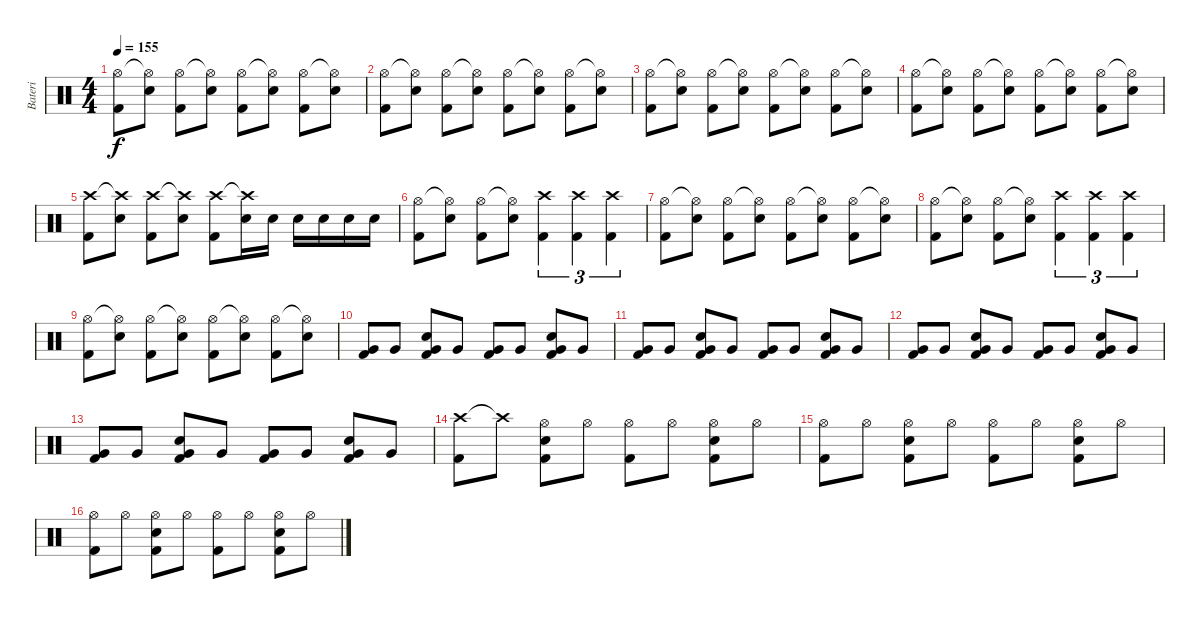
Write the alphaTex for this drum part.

\track ("Bateri" "Bateri") {instrument percussion}
\staff {score}
\articulation defaults
\ts (4 4)
\tempo 155
\clef neutral
\ks c
("Hi-Hat (open)" "Kick (hit) 2").8{dy f} ("Hi-Hat (open)"{t} "Snare (hit) 2").8 ("Hi-Hat (open)" "Kick (hit) 2").8 ("Hi-Hat (open)"{t} "Snare (hit) 2").8 ("Hi-Hat (open)" "Kick (hit) 2").8 ("Hi-Hat (open)"{t} "Snare (hit) 2").8 ("Hi-Hat (open)" "Kick (hit) 2").8 ("Hi-Hat (open)"{t} "Snare (hit) 2").8 |
("Hi-Hat (open)" "Kick (hit) 2").8 ("Hi-Hat (open)"{t} "Snare (hit) 2").8 ("Hi-Hat (open)" "Kick (hit) 2").8 ("Hi-Hat (open)"{t} "Snare (hit) 2").8 ("Hi-Hat (open)" "Kick (hit) 2").8 ("Hi-Hat (open)"{t} "Snare (hit) 2").8 ("Hi-Hat (open)" "Kick (hit) 2").8 ("Hi-Hat (open)"{t} "Snare (hit) 2").8 |
("Hi-Hat (open)" "Kick (hit) 2").8 ("Hi-Hat (open)"{t} "Snare (hit) 2").8 ("Hi-Hat (open)" "Kick (hit) 2").8 ("Hi-Hat (open)"{t} "Snare (hit) 2").8 ("Hi-Hat (open)" "Kick (hit) 2").8 ("Hi-Hat (open)"{t} "Snare (hit) 2").8 ("Hi-Hat (open)" "Kick (hit) 2").8 ("Hi-Hat (open)"{t} "Snare (hit) 2").8 |
("Hi-Hat (open)" "Kick (hit) 2").8 ("Hi-Hat (open)"{t} "Snare (hit) 2").8 ("Hi-Hat (open)" "Kick (hit) 2").8 ("Hi-Hat (open)"{t} "Snare (hit) 2").8 ("Hi-Hat (open)" "Kick (hit) 2").8 ("Hi-Hat (open)"{t} "Snare (hit) 2").8 ("Hi-Hat (open)" "Kick (hit) 2").8 ("Hi-Hat (open)"{t} "Snare (hit) 2").8 |
("Crash high (hit)" "Kick (hit) 2").8 ("Crash high (hit)"{t} "Snare (hit) 2").8 ("Crash high (hit)" "Kick (hit) 2").8 ("Crash high (hit)"{t} "Snare (hit) 2").8 ("Crash high (hit)" "Kick (hit) 2").8 ("Crash high (hit)"{t} "Snare (hit) 2").16 "Snare (hit) 2".16 "Snare (hit) 2".16 "Snare (hit) 2".16 "Snare (hit) 2".16 "Snare (hit) 2".16 |
("Hi-Hat (open)" "Kick (hit) 2").8 ("Hi-Hat (open)"{t} "Snare (hit) 2").8 ("Hi-Hat (open)" "Kick (hit) 2").8 ("Hi-Hat (open)"{t} "Snare (hit) 2").8 ("Crash high (hit)" "Kick (hit) 2").4{tu (3 2)} ("Crash high (hit)" "Kick (hit) 2").4{tu (3 2)} ("Crash high (hit)" "Kick (hit) 2").4{tu (3 2)} |
("Hi-Hat (open)" "Kick (hit) 2").8 ("Hi-Hat (open)"{t} "Snare (hit) 2").8 ("Hi-Hat (open)" "Kick (hit) 2").8 ("Hi-Hat (open)"{t} "Snare (hit) 2").8 ("Hi-Hat (open)" "Kick (hit) 2").8 ("Hi-Hat (open)"{t} "Snare (hit) 2").8 ("Hi-Hat (open)" "Kick (hit) 2").8 ("Hi-Hat (open)"{t} "Snare (hit) 2").8 |
("Hi-Hat (open)" "Kick (hit) 2").8 ("Hi-Hat (open)"{t} "Snare (hit) 2").8 ("Hi-Hat (open)" "Kick (hit) 2").8 ("Hi-Hat (open)"{t} "Snare (hit) 2").8 ("Crash high (hit)" "Kick (hit) 2").4{tu (3 2)} ("Crash high (hit)" "Kick (hit) 2").4{tu (3 2)} ("Crash high (hit)" "Kick (hit) 2").4{tu (3 2)} |
("Hi-Hat (open)" "Kick (hit) 2").8 ("Hi-Hat (open)"{t} "Snare (hit) 2").8 ("Hi-Hat (open)" "Kick (hit) 2").8 ("Hi-Hat (open)"{t} "Snare (hit) 2").8 ("Hi-Hat (open)" "Kick (hit) 2").8 ("Hi-Hat (open)"{t} "Snare (hit) 2").8 ("Hi-Hat (open)" "Kick (hit) 2").8 ("Hi-Hat (open)"{t} "Snare (hit) 2").8 |
("Very Low Tom (hit)" "Kick (hit) 2").8 "Very Low Tom (hit)".8 ("Very Low Tom (hit)" "Snare (hit) 2" "Kick (hit) 2").8 "Very Low Tom (hit)".8 ("Very Low Tom (hit)" "Kick (hit) 2").8 "Very Low Tom (hit)".8 ("Very Low Tom (hit)" "Snare (hit) 2" "Kick (hit) 2").8 "Very Low Tom (hit)".8 |
("Very Low Tom (hit)" "Kick (hit) 2").8 "Very Low Tom (hit)".8 ("Very Low Tom (hit)" "Snare (hit) 2" "Kick (hit) 2").8 "Very Low Tom (hit)".8 ("Very Low Tom (hit)" "Kick (hit) 2").8 "Very Low Tom (hit)".8 ("Very Low Tom (hit)" "Snare (hit) 2" "Kick (hit) 2").8 "Very Low Tom (hit)".8 |
("Very Low Tom (hit)" "Kick (hit) 2").8 "Very Low Tom (hit)".8 ("Very Low Tom (hit)" "Snare (hit) 2" "Kick (hit) 2").8 "Very Low Tom (hit)".8 ("Very Low Tom (hit)" "Kick (hit) 2").8 "Very Low Tom (hit)".8 ("Very Low Tom (hit)" "Snare (hit) 2" "Kick (hit) 2").8 "Very Low Tom (hit)".8 |
("Very Low Tom (hit)" "Kick (hit) 2").8 "Very Low Tom (hit)".8 ("Very Low Tom (hit)" "Snare (hit) 2" "Kick (hit) 2").8 "Very Low Tom (hit)".8 ("Very Low Tom (hit)" "Kick (hit) 2").8 "Very Low Tom (hit)".8 ("Very Low Tom (hit)" "Snare (hit) 2" "Kick (hit) 2").8 "Very Low Tom (hit)".8 |
("Crash high (hit)" "Kick (hit) 2").8 "Crash high (hit)"{t}.8 ("Hi-Hat (open)" "Snare (hit) 2" "Kick (hit) 2").8 "Hi-Hat (open)".8 ("Hi-Hat (open)" "Kick (hit) 2").8 "Hi-Hat (open)".8 ("Hi-Hat (open)" "Snare (hit) 2" "Kick (hit) 2").8 "Hi-Hat (open)".8 |
("Hi-Hat (open)" "Kick (hit) 2").8 "Hi-Hat (open)".8 ("Hi-Hat (open)" "Snare (hit) 2" "Kick (hit) 2").8 "Hi-Hat (open)".8 ("Hi-Hat (open)" "Kick (hit) 2").8 "Hi-Hat (open)".8 ("Hi-Hat (open)" "Snare (hit) 2" "Kick (hit) 2").8 "Hi-Hat (open)".8 |
("Hi-Hat (open)" "Kick (hit) 2").8 "Hi-Hat (open)".8 ("Hi-Hat (open)" "Snare (hit) 2" "Kick (hit) 2").8 "Hi-Hat (open)".8 ("Hi-Hat (open)" "Kick (hit) 2").8 "Hi-Hat (open)".8 ("Hi-Hat (open)" "Snare (hit) 2" "Kick (hit) 2").8 "Hi-Hat (open)".8
